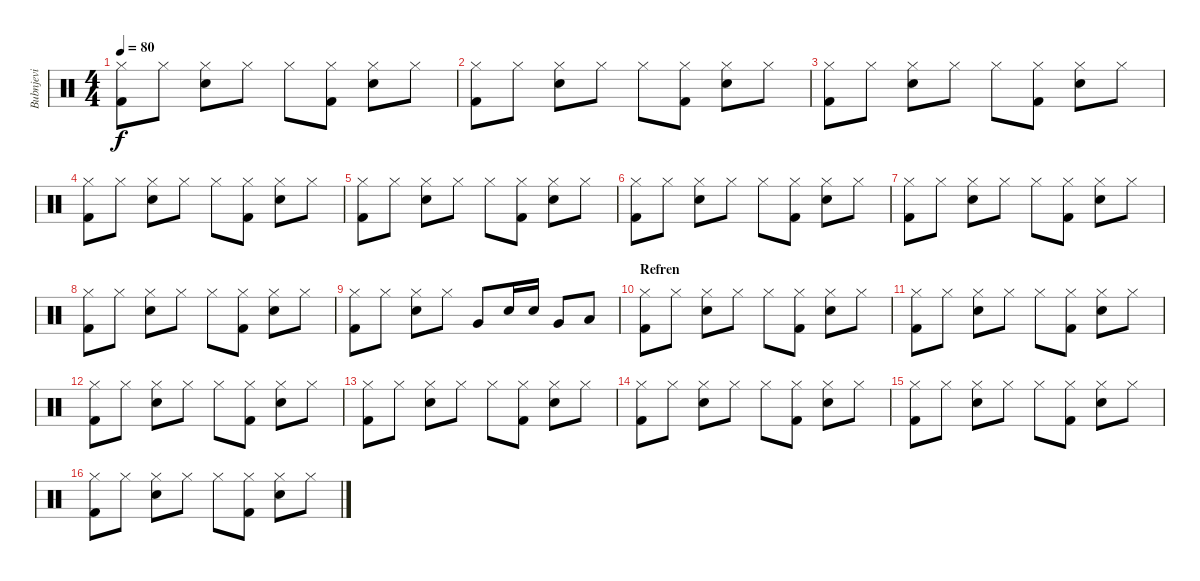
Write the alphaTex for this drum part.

\track ("Bubnjevi" "Bubnjevi") {instrument percussion}
\staff {score}
\articulation defaults
\ts (4 4)
\tempo 80
\clef neutral
\ks c
("Hi-Hat (closed)" "Kick (hit) 2").8{dy f} "Hi-Hat (closed)".8 ("Hi-Hat (closed)" "Electric Snare (hit)").8 "Hi-Hat (closed)".8 "Hi-Hat (closed)".8 ("Hi-Hat (closed)" "Kick (hit) 2").8 ("Hi-Hat (closed)" "Electric Snare (hit)").8 "Hi-Hat (closed)".8 |
("Hi-Hat (closed)" "Kick (hit) 2").8 "Hi-Hat (closed)".8 ("Hi-Hat (closed)" "Electric Snare (hit)").8 "Hi-Hat (closed)".8 "Hi-Hat (closed)".8 ("Hi-Hat (closed)" "Kick (hit) 2").8 ("Hi-Hat (closed)" "Electric Snare (hit)").8 "Hi-Hat (closed)".8 |
("Hi-Hat (closed)" "Kick (hit) 2").8 "Hi-Hat (closed)".8 ("Hi-Hat (closed)" "Electric Snare (hit)").8 "Hi-Hat (closed)".8 "Hi-Hat (closed)".8 ("Hi-Hat (closed)" "Kick (hit) 2").8 ("Hi-Hat (closed)" "Electric Snare (hit)").8 "Hi-Hat (closed)".8 |
("Hi-Hat (closed)" "Kick (hit) 2").8 "Hi-Hat (closed)".8 ("Hi-Hat (closed)" "Electric Snare (hit)").8 "Hi-Hat (closed)".8 "Hi-Hat (closed)".8 ("Hi-Hat (closed)" "Kick (hit) 2").8 ("Hi-Hat (closed)" "Electric Snare (hit)").8 "Hi-Hat (closed)".8 |
("Hi-Hat (closed)" "Kick (hit) 2").8 "Hi-Hat (closed)".8 ("Hi-Hat (closed)" "Electric Snare (hit)").8 "Hi-Hat (closed)".8 "Hi-Hat (closed)".8 ("Hi-Hat (closed)" "Kick (hit) 2").8 ("Hi-Hat (closed)" "Electric Snare (hit)").8 "Hi-Hat (closed)".8 |
("Hi-Hat (closed)" "Kick (hit) 2").8 "Hi-Hat (closed)".8 ("Hi-Hat (closed)" "Electric Snare (hit)").8 "Hi-Hat (closed)".8 "Hi-Hat (closed)".8 ("Hi-Hat (closed)" "Kick (hit) 2").8 ("Hi-Hat (closed)" "Electric Snare (hit)").8 "Hi-Hat (closed)".8 |
("Hi-Hat (closed)" "Kick (hit) 2").8 "Hi-Hat (closed)".8 ("Hi-Hat (closed)" "Electric Snare (hit)").8 "Hi-Hat (closed)".8 "Hi-Hat (closed)".8 ("Hi-Hat (closed)" "Kick (hit) 2").8 ("Hi-Hat (closed)" "Electric Snare (hit)").8 "Hi-Hat (closed)".8 |
("Hi-Hat (closed)" "Kick (hit) 2").8 "Hi-Hat (closed)".8 ("Hi-Hat (closed)" "Electric Snare (hit)").8 "Hi-Hat (closed)".8 "Hi-Hat (closed)".8 ("Hi-Hat (closed)" "Kick (hit) 2").8 ("Hi-Hat (closed)" "Electric Snare (hit)").8 "Hi-Hat (closed)".8 |
("Hi-Hat (closed)" "Kick (hit) 2").8 "Hi-Hat (closed)".8 ("Hi-Hat (closed)" "Electric Snare (hit)").8 "Hi-Hat (closed)".8 "Very Low Tom (hit)".8 "Electric Snare (hit)".16 "Electric Snare (hit)".16 "Very Low Tom (hit)".8 "Low Tom (hit)".8 |
\section ("" "Refren")
("Hi-Hat (closed)" "Kick (hit) 2").8 "Hi-Hat (closed)".8 ("Hi-Hat (closed)" "Electric Snare (hit)").8 "Hi-Hat (closed)".8 "Hi-Hat (closed)".8 ("Hi-Hat (closed)" "Kick (hit) 2").8 ("Hi-Hat (closed)" "Electric Snare (hit)").8 "Hi-Hat (closed)".8 |
("Hi-Hat (closed)" "Kick (hit) 2").8 "Hi-Hat (closed)".8 ("Hi-Hat (closed)" "Electric Snare (hit)").8 "Hi-Hat (closed)".8 "Hi-Hat (closed)".8 ("Hi-Hat (closed)" "Kick (hit) 2").8 ("Hi-Hat (closed)" "Electric Snare (hit)").8 "Hi-Hat (closed)".8 |
("Hi-Hat (closed)" "Kick (hit) 2").8 "Hi-Hat (closed)".8 ("Hi-Hat (closed)" "Electric Snare (hit)").8 "Hi-Hat (closed)".8 "Hi-Hat (closed)".8 ("Hi-Hat (closed)" "Kick (hit) 2").8 ("Hi-Hat (closed)" "Electric Snare (hit)").8 "Hi-Hat (closed)".8 |
("Hi-Hat (closed)" "Kick (hit) 2").8 "Hi-Hat (closed)".8 ("Hi-Hat (closed)" "Electric Snare (hit)").8 "Hi-Hat (closed)".8 "Hi-Hat (closed)".8 ("Hi-Hat (closed)" "Kick (hit) 2").8 ("Hi-Hat (closed)" "Electric Snare (hit)").8 "Hi-Hat (closed)".8 |
("Hi-Hat (closed)" "Kick (hit) 2").8 "Hi-Hat (closed)".8 ("Hi-Hat (closed)" "Electric Snare (hit)").8 "Hi-Hat (closed)".8 "Hi-Hat (closed)".8 ("Hi-Hat (closed)" "Kick (hit) 2").8 ("Hi-Hat (closed)" "Electric Snare (hit)").8 "Hi-Hat (closed)".8 |
("Hi-Hat (closed)" "Kick (hit) 2").8 "Hi-Hat (closed)".8 ("Hi-Hat (closed)" "Electric Snare (hit)").8 "Hi-Hat (closed)".8 "Hi-Hat (closed)".8 ("Hi-Hat (closed)" "Kick (hit) 2").8 ("Hi-Hat (closed)" "Electric Snare (hit)").8 "Hi-Hat (closed)".8 |
("Hi-Hat (closed)" "Kick (hit) 2").8 "Hi-Hat (closed)".8 ("Hi-Hat (closed)" "Electric Snare (hit)").8 "Hi-Hat (closed)".8 "Hi-Hat (closed)".8 ("Hi-Hat (closed)" "Kick (hit) 2").8 ("Hi-Hat (closed)" "Electric Snare (hit)").8 "Hi-Hat (closed)".8
